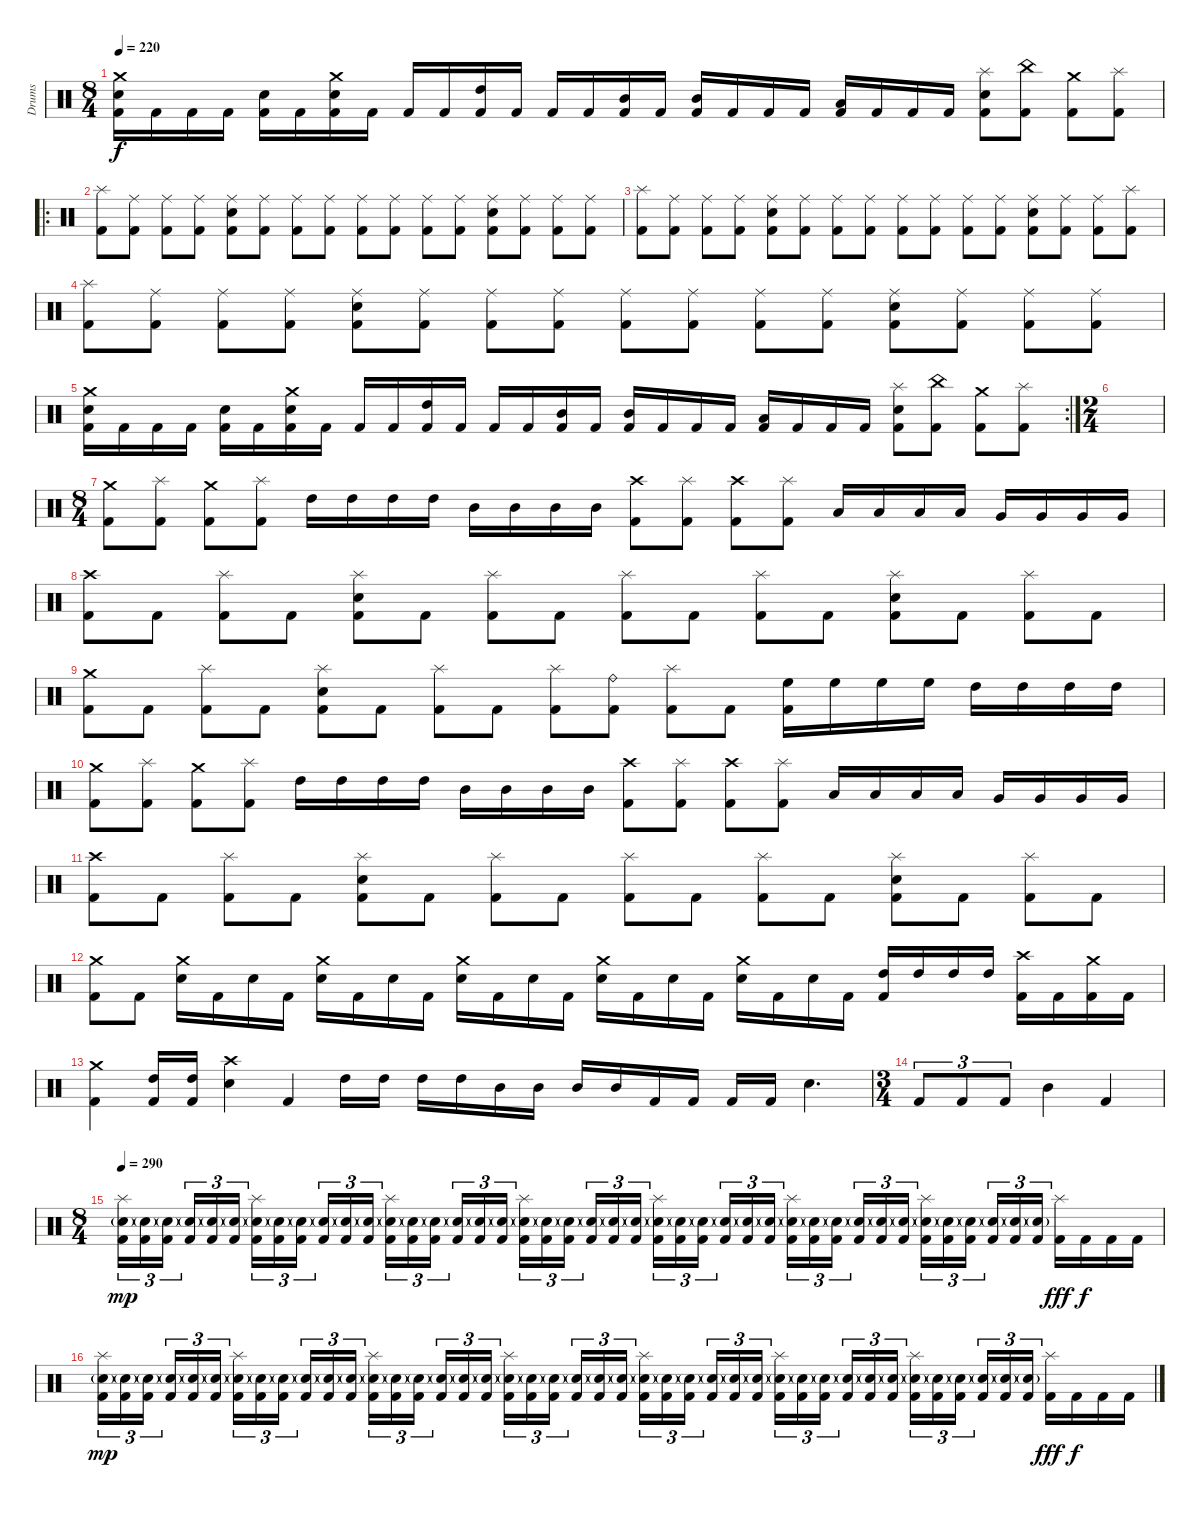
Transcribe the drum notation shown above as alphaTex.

\track ("Drums" "Drums") {instrument percussion}
\staff {score}
\articulation defaults
\ts (8 4)
\tempo 220
\clef neutral
\ks c
("Crash medium (hit)" "Snare (hit) 2" "Kick (hit) 2").16{dy f} "Kick (hit) 2".16 "Kick (hit) 2".16 "Kick (hit) 2".16 ("Snare (hit) 2" "Kick (hit) 2").16 "Kick (hit) 2".16 ("Crash medium (hit)" "Snare (hit) 2" "Kick (hit) 2").16 "Kick (hit) 2".16 "Kick (hit) 2".16 "Kick (hit) 2".16 ("High Tom (hit)" "Kick (hit) 2").16 "Kick (hit) 2".16 "Kick (hit) 2".16 "Kick (hit) 2".16 ("Mid Tom (hit)" "Kick (hit) 2").16 "Kick (hit) 2".16 ("Mid Tom (hit)" "Kick (hit) 2").16 "Kick (hit) 2".16 "Kick (hit) 2".16 "Kick (hit) 2".16 ("Low Tom (hit)" "Kick (hit) 2").16 "Kick (hit) 2".16 "Kick (hit) 2".16 "Kick (hit) 2".16 ("Splash (hit)" "Snare (hit) 2" "Kick (hit) 2").8 ("China (hit)" "Kick (hit) 2").8 ("Crash medium (hit)" "Kick (hit) 2").8 ("Splash (hit)" "Kick (hit) 2").8 |
\ro
("Splash (hit)" "Kick (hit) 2").8 ("Ride (middle)" "Kick (hit) 2").8 ("Ride (middle)" "Kick (hit) 2").8 ("Ride (middle)" "Kick (hit) 2").8 ("Ride (middle)" "Snare (hit) 2" "Kick (hit) 2").8 ("Ride (middle)" "Kick (hit) 2").8 ("Ride (middle)" "Kick (hit) 2").8 ("Ride (middle)" "Kick (hit) 2").8 ("Ride (middle)" "Kick (hit) 2").8 ("Ride (middle)" "Kick (hit) 2").8 ("Ride (middle)" "Kick (hit) 2").8 ("Ride (middle)" "Kick (hit) 2").8 ("Ride (middle)" "Snare (hit) 2" "Kick (hit) 2").8 ("Ride (middle)" "Kick (hit) 2").8 ("Ride (middle)" "Kick (hit) 2").8 ("Ride (middle)" "Kick (hit) 2").8 |
("Splash (hit)" "Kick (hit) 2").8 ("Ride (middle)" "Kick (hit) 2").8 ("Ride (middle)" "Kick (hit) 2").8 ("Ride (middle)" "Kick (hit) 2").8 ("Ride (middle)" "Snare (hit) 2" "Kick (hit) 2").8 ("Ride (middle)" "Kick (hit) 2").8 ("Ride (middle)" "Kick (hit) 2").8 ("Ride (middle)" "Kick (hit) 2").8 ("Ride (middle)" "Kick (hit) 2").8 ("Ride (middle)" "Kick (hit) 2").8 ("Ride (middle)" "Kick (hit) 2").8 ("Ride (middle)" "Kick (hit) 2").8 ("Ride (middle)" "Snare (hit) 2" "Kick (hit) 2").8 ("Ride (middle)" "Kick (hit) 2").8 ("Ride (middle)" "Kick (hit) 2").8 ("Splash (hit)" "Kick (hit) 2").8 |
("Splash (hit)" "Kick (hit) 2").8 ("Ride (middle)" "Kick (hit) 2").8 ("Ride (middle)" "Kick (hit) 2").8 ("Ride (middle)" "Kick (hit) 2").8 ("Ride (middle)" "Snare (hit) 2" "Kick (hit) 2").8 ("Ride (middle)" "Kick (hit) 2").8 ("Ride (middle)" "Kick (hit) 2").8 ("Ride (middle)" "Kick (hit) 2").8 ("Ride (middle)" "Kick (hit) 2").8 ("Ride (middle)" "Kick (hit) 2").8 ("Ride (middle)" "Kick (hit) 2").8 ("Ride (middle)" "Kick (hit) 2").8 ("Ride (middle)" "Snare (hit) 2" "Kick (hit) 2").8 ("Ride (middle)" "Kick (hit) 2").8 ("Ride (middle)" "Kick (hit) 2").8 ("Ride (middle)" "Kick (hit) 2").8 |
\rc 2
("Crash medium (hit)" "Snare (hit) 2" "Kick (hit) 2").16 "Kick (hit) 2".16 "Kick (hit) 2".16 "Kick (hit) 2".16 ("Snare (hit) 2" "Kick (hit) 2").16 "Kick (hit) 2".16 ("Crash medium (hit)" "Snare (hit) 2" "Kick (hit) 2").16 "Kick (hit) 2".16 "Kick (hit) 2".16 "Kick (hit) 2".16 ("High Tom (hit)" "Kick (hit) 2").16 "Kick (hit) 2".16 "Kick (hit) 2".16 "Kick (hit) 2".16 ("Mid Tom (hit)" "Kick (hit) 2").16 "Kick (hit) 2".16 ("Mid Tom (hit)" "Kick (hit) 2").16 "Kick (hit) 2".16 "Kick (hit) 2".16 "Kick (hit) 2".16 ("Low Tom (hit)" "Kick (hit) 2").16 "Kick (hit) 2".16 "Kick (hit) 2".16 "Kick (hit) 2".16 ("Splash (hit)" "Snare (hit) 2" "Kick (hit) 2").8 ("China (hit)" "Kick (hit) 2").8 ("Crash medium (hit)" "Kick (hit) 2").8 ("Splash (hit)" "Kick (hit) 2").8 |
\ts (2 4)
|
\ts (8 4)
("Crash medium (hit)" "Kick (hit) 2").8 ("Splash (hit)" "Kick (hit) 2").8 ("Crash medium (hit)" "Kick (hit) 2").8 ("Splash (hit)" "Kick (hit) 2").8 "High Tom (hit)".16 "High Tom (hit)".16 "High Tom (hit)".16 "High Tom (hit)".16 "Mid Tom (hit)".16 "Mid Tom (hit)".16 "Mid Tom (hit)".16 "Mid Tom (hit)".16 ("Crash high (hit)" "Kick (hit) 2").8 ("Splash (hit)" "Kick (hit) 2").8 ("Crash high (hit)" "Kick (hit) 2").8 ("Splash (hit)" "Kick (hit) 2").8 "Low Tom (hit)".16 "Low Tom (hit)".16 "Low Tom (hit)".16 "Low Tom (hit)".16 "Very Low Tom (hit)".16 "Very Low Tom (hit)".16 "Very Low Tom (hit)".16 "Very Low Tom (hit)".16 |
("Crash high (hit)" "Kick (hit) 2").8 "Kick (hit) 2".8 ("Splash (hit)" "Kick (hit) 2").8 "Kick (hit) 2".8 ("Splash (hit)" "Snare (hit) 2" "Kick (hit) 2").8 "Kick (hit) 2".8 ("Splash (hit)" "Kick (hit) 2").8 "Kick (hit) 2".8 ("Splash (hit)" "Kick (hit) 2").8 "Kick (hit) 2".8 ("Splash (hit)" "Kick (hit) 2").8 "Kick (hit) 2".8 ("Splash (hit)" "Snare (hit) 2" "Kick (hit) 2").8 "Kick (hit) 2".8 ("Splash (hit)" "Kick (hit) 2").8 "Kick (hit) 2".8 |
("Crash medium (hit)" "Kick (hit) 2").8 "Kick (hit) 2".8 ("Splash (hit)" "Kick (hit) 2").8 "Kick (hit) 2".8 ("Splash (hit)" "Snare (hit) 2" "Kick (hit) 2").8 "Kick (hit) 2".8 ("Splash (hit)" "Kick (hit) 2").8 "Kick (hit) 2".8 ("Splash (hit)" "Kick (hit) 2").8 ("Ride (bell)" "Kick (hit) 2").8 ("Splash (hit)" "Kick (hit) 2").8 "Kick (hit) 2".8 ("High Floor Tom (hit)" "Kick (hit) 2").16 "High Floor Tom (hit)".16 "High Floor Tom (hit)".16 "High Floor Tom (hit)".16 "High Tom (hit)".16 "High Tom (hit)".16 "High Tom (hit)".16 "High Tom (hit)".16 |
("Crash medium (hit)" "Kick (hit) 2").8 ("Splash (hit)" "Kick (hit) 2").8 ("Crash medium (hit)" "Kick (hit) 2").8 ("Splash (hit)" "Kick (hit) 2").8 "High Tom (hit)".16 "High Tom (hit)".16 "High Tom (hit)".16 "High Tom (hit)".16 "Mid Tom (hit)".16 "Mid Tom (hit)".16 "Mid Tom (hit)".16 "Mid Tom (hit)".16 ("Crash high (hit)" "Kick (hit) 2").8 ("Splash (hit)" "Kick (hit) 2").8 ("Crash high (hit)" "Kick (hit) 2").8 ("Splash (hit)" "Kick (hit) 2").8 "Low Tom (hit)".16 "Low Tom (hit)".16 "Low Tom (hit)".16 "Low Tom (hit)".16 "Very Low Tom (hit)".16 "Very Low Tom (hit)".16 "Very Low Tom (hit)".16 "Very Low Tom (hit)".16 |
("Crash high (hit)" "Kick (hit) 2").8 "Kick (hit) 2".8 ("Splash (hit)" "Kick (hit) 2").8 "Kick (hit) 2".8 ("Splash (hit)" "Snare (hit) 2" "Kick (hit) 2").8 "Kick (hit) 2".8 ("Splash (hit)" "Kick (hit) 2").8 "Kick (hit) 2".8 ("Splash (hit)" "Kick (hit) 2").8 "Kick (hit) 2".8 ("Splash (hit)" "Kick (hit) 2").8 "Kick (hit) 2".8 ("Splash (hit)" "Snare (hit) 2" "Kick (hit) 2").8 "Kick (hit) 2".8 ("Splash (hit)" "Kick (hit) 2").8 "Kick (hit) 2".8 |
("Crash medium (hit)" "Kick (hit) 2").8 "Kick (hit) 2".8 ("Crash medium (hit)" "Snare (hit) 2").16 "Kick (hit) 2".16 "Snare (hit) 2".16 "Kick (hit) 2".16 ("Crash medium (hit)" "Snare (hit) 2").16 "Kick (hit) 2".16 "Snare (hit) 2".16 "Kick (hit) 2".16 ("Crash medium (hit)" "Snare (hit) 2").16 "Kick (hit) 2".16 "Snare (hit) 2".16 "Kick (hit) 2".16 ("Crash medium (hit)" "Snare (hit) 2").16 "Kick (hit) 2".16 "Snare (hit) 2".16 "Kick (hit) 2".16 ("Crash medium (hit)" "Snare (hit) 2").16 "Kick (hit) 2".16 "Snare (hit) 2".16 "Kick (hit) 2".16 ("High Tom (hit)" "Kick (hit) 2").16 "High Tom (hit)".16 "High Tom (hit)".16 "High Tom (hit)".16 ("Crash high (hit)" "Kick (hit) 2").16 "Kick (hit) 2".16 ("Crash medium (hit)" "Kick (hit) 2").16 "Kick (hit) 2".16 |
("Crash medium (hit)" "Kick (hit) 2").4 ("High Tom (hit)" "Kick (hit) 2").16 ("High Tom (hit)" "Kick (hit) 2").16 ("Crash high (hit)" "Snare (hit) 2").4 "Kick (hit) 2".4 "High Tom (hit)".16 "High Tom (hit)".16 "High Tom (hit)".16 "High Tom (hit)".16 "Mid Tom (hit)".16 "Mid Tom (hit)".16 "Mid Tom (hit)".16 "Mid Tom (hit)".16 "Kick (hit) 2".16 "Kick (hit) 2".16 "Kick (hit) 2".16 "Kick (hit) 2".16 "Snare (hit) 2".4{d} |
\ts (3 4)
"Kick (hit) 2".8{tu (3 2)} "Kick (hit) 2".8{tu (3 2)} "Kick (hit) 2".8{tu (3 2)} "Mid Tom (hit)".4 "Kick (hit) 2".4 |
\ts (8 4)
\tempo 290
("Splash (hit)" "Snare (hit) 2"{g} "Kick (hit) 2").16{tu (3 2) dy mp} ("Snare (hit) 2"{g} "Kick (hit) 2").16{tu (3 2)} ("Snare (hit) 2"{g} "Kick (hit) 2").16{tu (3 2) beam splitsecondary} ("Snare (hit) 2"{g} "Kick (hit) 2").16{tu (3 2)} ("Snare (hit) 2"{g} "Kick (hit) 2").16{tu (3 2)} ("Snare (hit) 2"{g} "Kick (hit) 2").16{tu (3 2)} ("Splash (hit)" "Snare (hit) 2"{g} "Kick (hit) 2").16{tu (3 2)} ("Snare (hit) 2"{g} "Kick (hit) 2").16{tu (3 2)} ("Snare (hit) 2"{g} "Kick (hit) 2").16{tu (3 2) beam splitsecondary} ("Snare (hit) 2"{g} "Kick (hit) 2").16{tu (3 2)} ("Snare (hit) 2"{g} "Kick (hit) 2").16{tu (3 2)} ("Snare (hit) 2"{g} "Kick (hit) 2").16{tu (3 2)} ("Splash (hit)" "Snare (hit) 2"{g} "Kick (hit) 2").16{tu (3 2)} ("Snare (hit) 2"{g} "Kick (hit) 2").16{tu (3 2)} ("Snare (hit) 2"{g} "Kick (hit) 2").16{tu (3 2) beam splitsecondary} ("Snare (hit) 2"{g} "Kick (hit) 2").16{tu (3 2)} ("Snare (hit) 2"{g} "Kick (hit) 2").16{tu (3 2)} ("Snare (hit) 2"{g} "Kick (hit) 2").16{tu (3 2)} ("Splash (hit)" "Snare (hit) 2"{g} "Kick (hit) 2").16{tu (3 2)} ("Snare (hit) 2"{g} "Kick (hit) 2").16{tu (3 2)} ("Snare (hit) 2"{g} "Kick (hit) 2").16{tu (3 2) beam splitsecondary} ("Snare (hit) 2"{g} "Kick (hit) 2").16{tu (3 2)} ("Snare (hit) 2"{g} "Kick (hit) 2").16{tu (3 2)} ("Snare (hit) 2"{g} "Kick (hit) 2").16{tu (3 2)} ("Splash (hit)" "Snare (hit) 2"{g} "Kick (hit) 2").16{tu (3 2)} ("Snare (hit) 2"{g} "Kick (hit) 2").16{tu (3 2)} ("Snare (hit) 2"{g} "Kick (hit) 2").16{tu (3 2) beam splitsecondary} ("Snare (hit) 2"{g} "Kick (hit) 2").16{tu (3 2)} ("Snare (hit) 2"{g} "Kick (hit) 2").16{tu (3 2)} ("Snare (hit) 2"{g} "Kick (hit) 2").16{tu (3 2)} ("Splash (hit)" "Snare (hit) 2"{g} "Kick (hit) 2").16{tu (3 2)} ("Snare (hit) 2"{g} "Kick (hit) 2").16{tu (3 2)} ("Snare (hit) 2"{g} "Kick (hit) 2").16{tu (3 2) beam splitsecondary} ("Snare (hit) 2"{g} "Kick (hit) 2").16{tu (3 2)} ("Snare (hit) 2"{g} "Kick (hit) 2").16{tu (3 2)} ("Snare (hit) 2"{g} "Kick (hit) 2").16{tu (3 2)} ("Splash (hit)" "Snare (hit) 2"{g} "Kick (hit) 2").16{tu (3 2)} ("Snare (hit) 2"{g} "Kick (hit) 2").16{tu (3 2)} ("Snare (hit) 2"{g} "Kick (hit) 2").16{tu (3 2) beam splitsecondary} ("Snare (hit) 2"{g} "Kick (hit) 2").16{tu (3 2)} ("Snare (hit) 2"{g} "Kick (hit) 2").16{tu (3 2)} ("Snare (hit) 2"{g} "Kick (hit) 2").16{tu (3 2)} ("Splash (hit)" "Kick (hit) 2").16{dy fff} "Kick (hit) 2".16{dy f} "Kick (hit) 2".16 "Kick (hit) 2".16 |
("Splash (hit)" "Snare (hit) 2"{g} "Kick (hit) 2").16{tu (3 2) dy mp} ("Snare (hit) 2"{g} "Kick (hit) 2").16{tu (3 2)} ("Snare (hit) 2"{g} "Kick (hit) 2").16{tu (3 2) beam splitsecondary} ("Snare (hit) 2"{g} "Kick (hit) 2").16{tu (3 2)} ("Snare (hit) 2"{g} "Kick (hit) 2").16{tu (3 2)} ("Snare (hit) 2"{g} "Kick (hit) 2").16{tu (3 2)} ("Splash (hit)" "Snare (hit) 2"{g} "Kick (hit) 2").16{tu (3 2)} ("Snare (hit) 2"{g} "Kick (hit) 2").16{tu (3 2)} ("Snare (hit) 2"{g} "Kick (hit) 2").16{tu (3 2) beam splitsecondary} ("Snare (hit) 2"{g} "Kick (hit) 2").16{tu (3 2)} ("Snare (hit) 2"{g} "Kick (hit) 2").16{tu (3 2)} ("Snare (hit) 2"{g} "Kick (hit) 2").16{tu (3 2)} ("Splash (hit)" "Snare (hit) 2"{g} "Kick (hit) 2").16{tu (3 2)} ("Snare (hit) 2"{g} "Kick (hit) 2").16{tu (3 2)} ("Snare (hit) 2"{g} "Kick (hit) 2").16{tu (3 2) beam splitsecondary} ("Snare (hit) 2"{g} "Kick (hit) 2").16{tu (3 2)} ("Snare (hit) 2"{g} "Kick (hit) 2").16{tu (3 2)} ("Snare (hit) 2"{g} "Kick (hit) 2").16{tu (3 2)} ("Splash (hit)" "Snare (hit) 2"{g} "Kick (hit) 2").16{tu (3 2)} ("Snare (hit) 2"{g} "Kick (hit) 2").16{tu (3 2)} ("Snare (hit) 2"{g} "Kick (hit) 2").16{tu (3 2) beam splitsecondary} ("Snare (hit) 2"{g} "Kick (hit) 2").16{tu (3 2)} ("Snare (hit) 2"{g} "Kick (hit) 2").16{tu (3 2)} ("Snare (hit) 2"{g} "Kick (hit) 2").16{tu (3 2)} ("Splash (hit)" "Snare (hit) 2"{g} "Kick (hit) 2").16{tu (3 2)} ("Snare (hit) 2"{g} "Kick (hit) 2").16{tu (3 2)} ("Snare (hit) 2"{g} "Kick (hit) 2").16{tu (3 2) beam splitsecondary} ("Snare (hit) 2"{g} "Kick (hit) 2").16{tu (3 2)} ("Snare (hit) 2"{g} "Kick (hit) 2").16{tu (3 2)} ("Snare (hit) 2"{g} "Kick (hit) 2").16{tu (3 2)} ("Splash (hit)" "Snare (hit) 2"{g} "Kick (hit) 2").16{tu (3 2)} ("Snare (hit) 2"{g} "Kick (hit) 2").16{tu (3 2)} ("Snare (hit) 2"{g} "Kick (hit) 2").16{tu (3 2) beam splitsecondary} ("Snare (hit) 2"{g} "Kick (hit) 2").16{tu (3 2)} ("Snare (hit) 2"{g} "Kick (hit) 2").16{tu (3 2)} ("Snare (hit) 2"{g} "Kick (hit) 2").16{tu (3 2)} ("Splash (hit)" "Snare (hit) 2"{g} "Kick (hit) 2").16{tu (3 2)} ("Snare (hit) 2"{g} "Kick (hit) 2").16{tu (3 2)} ("Snare (hit) 2"{g} "Kick (hit) 2").16{tu (3 2) beam splitsecondary} ("Snare (hit) 2"{g} "Kick (hit) 2").16{tu (3 2)} ("Snare (hit) 2"{g} "Kick (hit) 2").16{tu (3 2)} ("Snare (hit) 2"{g} "Kick (hit) 2").16{tu (3 2)} ("Splash (hit)" "Kick (hit) 2").16{dy fff} "Kick (hit) 2".16{dy f} "Kick (hit) 2".16 "Kick (hit) 2".16
